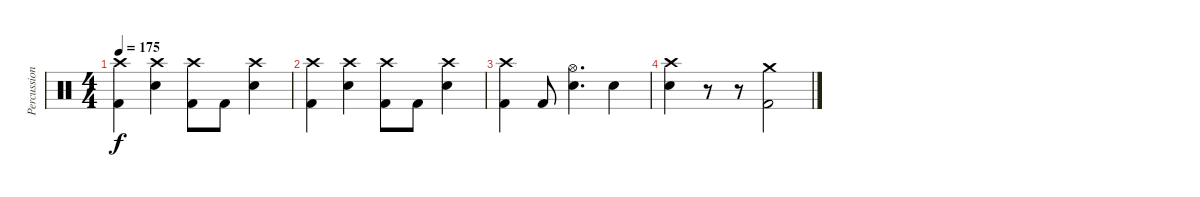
\track ("Percussion" "Percussion") {instrument percussion}
\staff {score}
\articulation defaults
\ts (4 4)
\tempo 175
\clef neutral
\ks c
("Kick (hit) 2" "Crash high (hit)").4{dy f} ("Electric Snare (hit)" "Crash high (hit)").4 ("Kick (hit) 2" "Crash high (hit)").8 "Kick (hit) 2".8 ("Electric Snare (hit)" "Crash high (hit)").4 |
("Kick (hit) 2" "Crash high (hit)").4 ("Electric Snare (hit)" "Crash high (hit)").4 ("Kick (hit) 2" "Crash high (hit)").8 "Kick (hit) 2".8 ("Electric Snare (hit)" "Crash high (hit)").4 |
("Kick (hit) 2" "Crash high (hit)").4 "Kick (hit) 2".8 ("Electric Snare (hit)" "Hi-Hat (open)").4{d} "Electric Snare (hit)".4 |
("Electric Snare (hit)" "Crash high (hit)").4 r.8 r.8 ("Kick (hit) 2" "Crash medium (hit)").2
